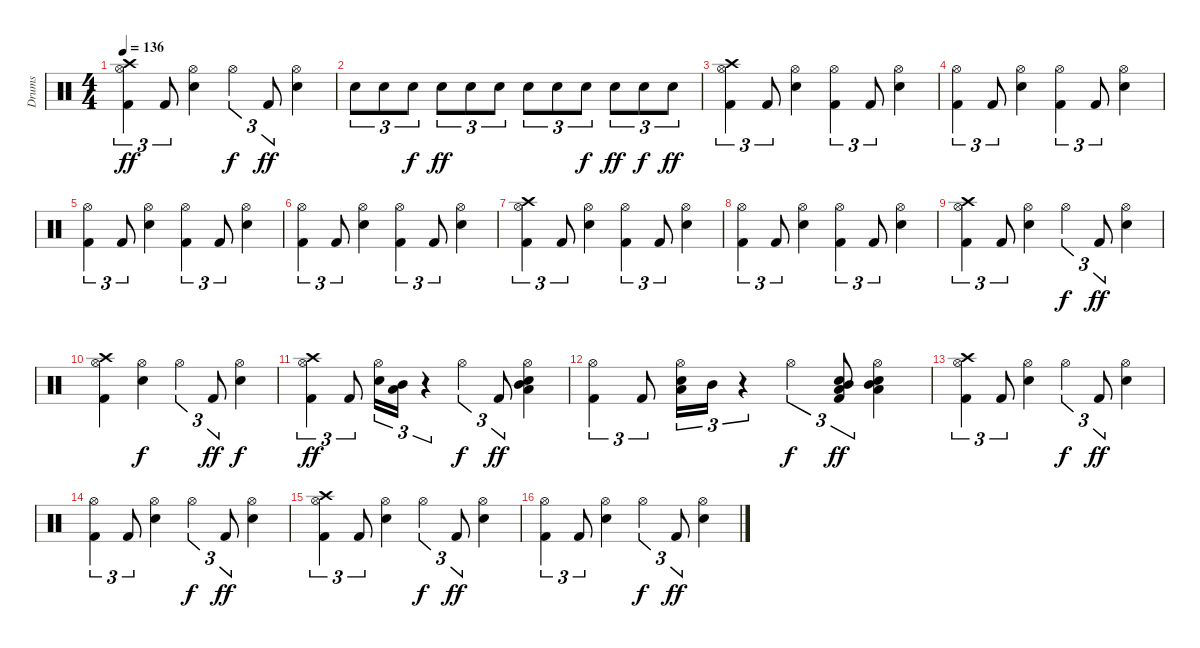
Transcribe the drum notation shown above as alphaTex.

\track ("Drums" "Drums") {instrument percussion}
\staff {score}
\articulation defaults
\ts (4 4)
\tempo 136
\clef neutral
\ks c
("Crash high (hit)" "Hi-Hat (open)" "Kick (hit) 2").4{tu (3 2) dy ff} "Kick (hit) 2".8{tu (3 2)} ("Snare (hit) 2" "Hi-Hat (open)").4 "Hi-Hat (open)".4{tu (3 2) dy f} "Kick (hit) 2".8{tu (3 2) dy ff} ("Hi-Hat (open)" "Snare (hit) 2").4 |
"Snare (hit) 2".8{tu (3 2)} "Snare (hit) 2".8{tu (3 2)} "Snare (hit) 2".8{tu (3 2) dy f} "Snare (hit) 2".8{tu (3 2) dy ff} "Snare (hit) 2".8{tu (3 2)} "Snare (hit) 2".8{tu (3 2)} "Snare (hit) 2".8{tu (3 2)} "Snare (hit) 2".8{tu (3 2)} "Snare (hit) 2".8{tu (3 2) dy f} "Snare (hit) 2".8{tu (3 2) dy ff} "Snare (hit) 2".8{tu (3 2) dy f} "Snare (hit) 2".8{tu (3 2) dy ff} |
("Kick (hit) 2" "Crash high (hit)" "Hi-Hat (open)").4{tu (3 2)} "Kick (hit) 2".8{tu (3 2)} ("Hi-Hat (open)" "Snare (hit) 2").4 ("Kick (hit) 2" "Hi-Hat (open)").4{tu (3 2)} "Kick (hit) 2".8{tu (3 2)} ("Snare (hit) 2" "Hi-Hat (open)").4 |
("Kick (hit) 2" "Hi-Hat (open)").4{tu (3 2)} "Kick (hit) 2".8{tu (3 2)} ("Hi-Hat (open)" "Snare (hit) 2").4 ("Hi-Hat (open)" "Kick (hit) 2").4{tu (3 2)} "Kick (hit) 2".8{tu (3 2)} ("Hi-Hat (open)" "Snare (hit) 2").4 |
("Kick (hit) 2" "Hi-Hat (open)").4{tu (3 2)} "Kick (hit) 2".8{tu (3 2)} ("Snare (hit) 2" "Hi-Hat (open)").4 ("Hi-Hat (open)" "Kick (hit) 2").4{tu (3 2)} "Kick (hit) 2".8{tu (3 2)} ("Snare (hit) 2" "Hi-Hat (open)").4 |
("Kick (hit) 2" "Hi-Hat (open)").4{tu (3 2)} "Kick (hit) 2".8{tu (3 2)} ("Snare (hit) 2" "Hi-Hat (open)").4 ("Hi-Hat (open)" "Kick (hit) 2").4{tu (3 2)} "Kick (hit) 2".8{tu (3 2)} ("Snare (hit) 2" "Hi-Hat (open)").4 |
("Crash high (hit)" "Hi-Hat (open)" "Kick (hit) 2").4{tu (3 2)} "Kick (hit) 2".8{tu (3 2)} ("Snare (hit) 2" "Hi-Hat (open)").4 ("Hi-Hat (open)" "Kick (hit) 2").4{tu (3 2)} "Kick (hit) 2".8{tu (3 2)} ("Snare (hit) 2" "Hi-Hat (open)").4 |
("Kick (hit) 2" "Hi-Hat (open)").4{tu (3 2)} "Kick (hit) 2".8{tu (3 2)} ("Snare (hit) 2" "Hi-Hat (open)").4 ("Kick (hit) 2" "Hi-Hat (open)").4{tu (3 2)} "Kick (hit) 2".8{tu (3 2)} ("Hi-Hat (open)" "Snare (hit) 2").4 |
("Kick (hit) 2" "Hi-Hat (open)" "Crash high (hit)").4{tu (3 2)} "Kick (hit) 2".8{tu (3 2)} ("Snare (hit) 2" "Hi-Hat (open)").4 "Hi-Hat (open)".4{tu (3 2) dy f} "Kick (hit) 2".8{tu (3 2) dy ff} ("Snare (hit) 2" "Hi-Hat (open)").4 |
("Hi-Hat (open)" "Crash high (hit)" "Kick (hit) 2").4 ("Hi-Hat (open)" "Snare (hit) 2").4{dy f} "Hi-Hat (open)".4{tu (3 2)} "Kick (hit) 2".8{tu (3 2) dy ff} ("Hi-Hat (open)" "Snare (hit) 2").4{dy f} |
("Crash high (hit)" "Kick (hit) 2" "Hi-Hat (open)").4{tu (3 2) dy ff} "Kick (hit) 2".8{tu (3 2)} ("Snare (hit) 2" "Hi-Hat (open)").16{tu (3 2)} ("Mid Tom (hit)" "Low Floor Tom (hit)").16{tu (3 2)} r.4{tu (3 2)} "Hi-Hat (open)".4{tu (3 2) dy f} "Kick (hit) 2".8{tu (3 2) dy ff} ("Snare (hit) 2" "Hi-Hat (open)" "Mid Tom (hit)" "Low Floor Tom (hit)").4 |
("Kick (hit) 2" "Hi-Hat (open)").4{tu (3 2)} "Kick (hit) 2".8{tu (3 2)} ("Snare (hit) 2" "Hi-Hat (open)" "Low Floor Tom (hit)").16{tu (3 2)} "Mid Tom (hit)".16{tu (3 2)} r.4{tu (3 2)} "Hi-Hat (open)".4{tu (3 2) dy f} ("Snare (hit) 2" "Kick (hit) 2" "Mid Tom (hit)" "Low Floor Tom (hit)").8{tu (3 2) dy ff} ("Low Floor Tom (hit)" "Hi-Hat (open)" "Snare (hit) 2" "Mid Tom (hit)").4 |
("Kick (hit) 2" "Crash high (hit)" "Hi-Hat (open)").4{tu (3 2)} "Kick (hit) 2".8{tu (3 2)} ("Snare (hit) 2" "Hi-Hat (open)").4 "Hi-Hat (open)".4{tu (3 2) dy f} "Kick (hit) 2".8{tu (3 2) dy ff} ("Snare (hit) 2" "Hi-Hat (open)").4 |
("Kick (hit) 2" "Hi-Hat (open)").4{tu (3 2)} "Kick (hit) 2".8{tu (3 2)} ("Snare (hit) 2" "Hi-Hat (open)").4 "Hi-Hat (open)".4{tu (3 2) dy f} "Kick (hit) 2".8{tu (3 2) dy ff} ("Snare (hit) 2" "Hi-Hat (open)").4 |
("Kick (hit) 2" "Crash high (hit)" "Hi-Hat (open)").4{tu (3 2)} "Kick (hit) 2".8{tu (3 2)} ("Snare (hit) 2" "Hi-Hat (open)").4 "Hi-Hat (open)".4{tu (3 2) dy f} "Kick (hit) 2".8{tu (3 2) dy ff} ("Snare (hit) 2" "Hi-Hat (open)").4 |
("Kick (hit) 2" "Hi-Hat (open)").4{tu (3 2)} "Kick (hit) 2".8{tu (3 2)} ("Hi-Hat (open)" "Snare (hit) 2").4 "Hi-Hat (open)".4{tu (3 2) dy f} "Kick (hit) 2".8{tu (3 2) dy ff} ("Snare (hit) 2" "Hi-Hat (open)").4
